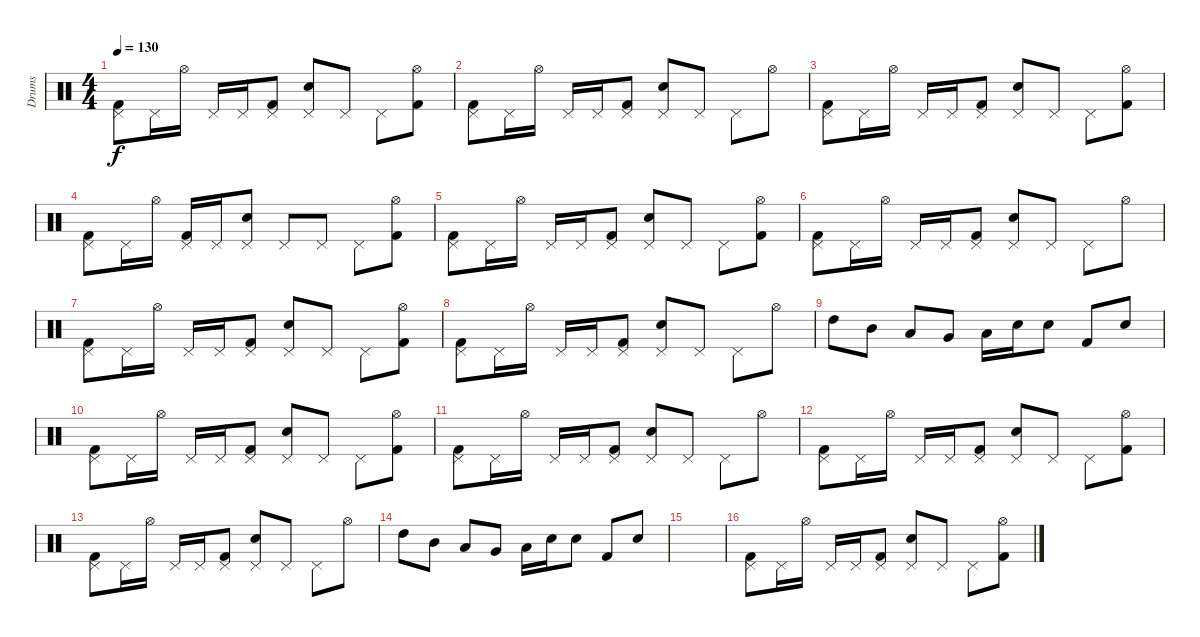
\track ("Drums" "Drums") {instrument percussion}
\staff {score}
\articulation defaults
\ts (4 4)
\tempo 130
\clef neutral
\ks c
("Pedal Hi-Hat (hit)" "Kick (hit) 2").8{dy f} "Pedal Hi-Hat (hit)".16 "Hi-Hat (open)".16 "Pedal Hi-Hat (hit)".16 "Pedal Hi-Hat (hit)".16 ("Pedal Hi-Hat (hit)" "Kick (hit) 2").8 ("Pedal Hi-Hat (hit)" "Electric Snare (hit)").8 "Pedal Hi-Hat (hit)".8 "Pedal Hi-Hat (hit)".8 ("Hi-Hat (open)" "Kick (hit) 2").8 |
("Pedal Hi-Hat (hit)" "Kick (hit) 2").8 "Pedal Hi-Hat (hit)".16 "Hi-Hat (open)".16 "Pedal Hi-Hat (hit)".16 "Pedal Hi-Hat (hit)".16 ("Pedal Hi-Hat (hit)" "Kick (hit) 2").8 ("Pedal Hi-Hat (hit)" "Electric Snare (hit)").8 "Pedal Hi-Hat (hit)".8 "Pedal Hi-Hat (hit)".8 "Hi-Hat (open)".8 |
("Pedal Hi-Hat (hit)" "Kick (hit) 2").8 "Pedal Hi-Hat (hit)".16 "Hi-Hat (open)".16 "Pedal Hi-Hat (hit)".16 "Pedal Hi-Hat (hit)".16 ("Pedal Hi-Hat (hit)" "Kick (hit) 2").8 ("Pedal Hi-Hat (hit)" "Electric Snare (hit)").8 "Pedal Hi-Hat (hit)".8 "Pedal Hi-Hat (hit)".8 ("Hi-Hat (open)" "Kick (hit) 2").8 |
("Pedal Hi-Hat (hit)" "Kick (hit) 2").8 "Pedal Hi-Hat (hit)".16 "Hi-Hat (open)".16 ("Pedal Hi-Hat (hit)" "Kick (hit) 2").16 "Pedal Hi-Hat (hit)".16 ("Pedal Hi-Hat (hit)" "Electric Snare (hit)").8 "Pedal Hi-Hat (hit)".8 "Pedal Hi-Hat (hit)".8 "Pedal Hi-Hat (hit)".8 ("Hi-Hat (open)" "Kick (hit) 2").8 |
("Pedal Hi-Hat (hit)" "Kick (hit) 2").8 "Pedal Hi-Hat (hit)".16 "Hi-Hat (open)".16 "Pedal Hi-Hat (hit)".16 "Pedal Hi-Hat (hit)".16 ("Pedal Hi-Hat (hit)" "Kick (hit) 2").8 ("Pedal Hi-Hat (hit)" "Electric Snare (hit)").8 "Pedal Hi-Hat (hit)".8 "Pedal Hi-Hat (hit)".8 ("Hi-Hat (open)" "Kick (hit) 2").8 |
("Pedal Hi-Hat (hit)" "Kick (hit) 2").8 "Pedal Hi-Hat (hit)".16 "Hi-Hat (open)".16 "Pedal Hi-Hat (hit)".16 "Pedal Hi-Hat (hit)".16 ("Pedal Hi-Hat (hit)" "Kick (hit) 2").8 ("Pedal Hi-Hat (hit)" "Electric Snare (hit)").8 "Pedal Hi-Hat (hit)".8 "Pedal Hi-Hat (hit)".8 "Hi-Hat (open)".8 |
("Pedal Hi-Hat (hit)" "Kick (hit) 2").8 "Pedal Hi-Hat (hit)".16 "Hi-Hat (open)".16 "Pedal Hi-Hat (hit)".16 "Pedal Hi-Hat (hit)".16 ("Pedal Hi-Hat (hit)" "Kick (hit) 2").8 ("Pedal Hi-Hat (hit)" "Electric Snare (hit)").8 "Pedal Hi-Hat (hit)".8 "Pedal Hi-Hat (hit)".8 ("Hi-Hat (open)" "Kick (hit) 2").8 |
("Pedal Hi-Hat (hit)" "Kick (hit) 2").8 "Pedal Hi-Hat (hit)".16 "Hi-Hat (open)".16 "Pedal Hi-Hat (hit)".16 "Pedal Hi-Hat (hit)".16 ("Pedal Hi-Hat (hit)" "Kick (hit) 2").8 ("Pedal Hi-Hat (hit)" "Electric Snare (hit)").8 "Pedal Hi-Hat (hit)".8 "Pedal Hi-Hat (hit)".8 "Hi-Hat (open)".8 |
"High Tom (hit)".8 "Mid Tom (hit)".8 "Low Tom (hit)".8 "Very Low Tom (hit)".8 "Low Floor Tom (hit)".16 "Electric Snare (hit)".16 "Electric Snare (hit)".8 "Kick (hit) 2".8 "Electric Snare (hit)".8 |
("Pedal Hi-Hat (hit)" "Kick (hit) 2").8 "Pedal Hi-Hat (hit)".16 "Hi-Hat (open)".16 "Pedal Hi-Hat (hit)".16 "Pedal Hi-Hat (hit)".16 ("Pedal Hi-Hat (hit)" "Kick (hit) 2").8 ("Pedal Hi-Hat (hit)" "Electric Snare (hit)").8 "Pedal Hi-Hat (hit)".8 "Pedal Hi-Hat (hit)".8 ("Hi-Hat (open)" "Kick (hit) 2").8 |
("Pedal Hi-Hat (hit)" "Kick (hit) 2").8 "Pedal Hi-Hat (hit)".16 "Hi-Hat (open)".16 "Pedal Hi-Hat (hit)".16 "Pedal Hi-Hat (hit)".16 ("Pedal Hi-Hat (hit)" "Kick (hit) 2").8 ("Pedal Hi-Hat (hit)" "Electric Snare (hit)").8 "Pedal Hi-Hat (hit)".8 "Pedal Hi-Hat (hit)".8 "Hi-Hat (open)".8 |
("Pedal Hi-Hat (hit)" "Kick (hit) 2").8 "Pedal Hi-Hat (hit)".16 "Hi-Hat (open)".16 "Pedal Hi-Hat (hit)".16 "Pedal Hi-Hat (hit)".16 ("Pedal Hi-Hat (hit)" "Kick (hit) 2").8 ("Pedal Hi-Hat (hit)" "Electric Snare (hit)").8 "Pedal Hi-Hat (hit)".8 "Pedal Hi-Hat (hit)".8 ("Hi-Hat (open)" "Kick (hit) 2").8 |
("Pedal Hi-Hat (hit)" "Kick (hit) 2").8 "Pedal Hi-Hat (hit)".16 "Hi-Hat (open)".16 "Pedal Hi-Hat (hit)".16 "Pedal Hi-Hat (hit)".16 ("Pedal Hi-Hat (hit)" "Kick (hit) 2").8 ("Pedal Hi-Hat (hit)" "Electric Snare (hit)").8 "Pedal Hi-Hat (hit)".8 "Pedal Hi-Hat (hit)".8 "Hi-Hat (open)".8 |
"High Tom (hit)".8 "Mid Tom (hit)".8 "Low Tom (hit)".8 "Very Low Tom (hit)".8 "Low Floor Tom (hit)".16 "Electric Snare (hit)".16 "Electric Snare (hit)".8 "Kick (hit) 2".8 "Electric Snare (hit)".8 |
|
("Pedal Hi-Hat (hit)" "Kick (hit) 2").8 "Pedal Hi-Hat (hit)".16 "Hi-Hat (open)".16 "Pedal Hi-Hat (hit)".16 "Pedal Hi-Hat (hit)".16 ("Pedal Hi-Hat (hit)" "Kick (hit) 2").8 ("Pedal Hi-Hat (hit)" "Electric Snare (hit)").8 "Pedal Hi-Hat (hit)".8 "Pedal Hi-Hat (hit)".8 ("Hi-Hat (open)" "Kick (hit) 2").8
